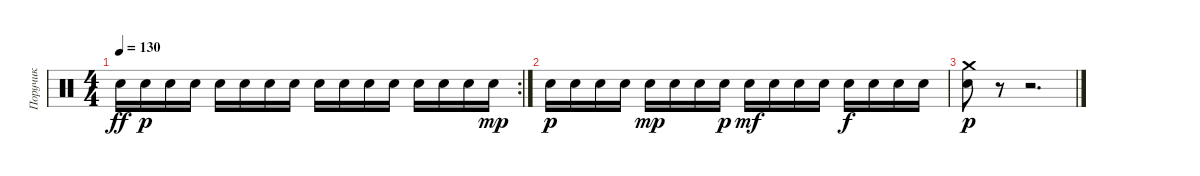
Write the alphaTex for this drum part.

\track ("Поручик" "Поручик") {instrument percussion}
\staff {score}
\articulation defaults
\rc 2
\ts (4 4)
\tempo 130
\clef neutral
\ks c "Electric Snare (hit)".16{dy ff} "Electric Snare (hit)".16{dy p} "Electric Snare (hit)".16 "Electric Snare (hit)".16 "Electric Snare (hit)".16 "Electric Snare (hit)".16 "Electric Snare (hit)".16 "Electric Snare (hit)".16 "Electric Snare (hit)".16 "Electric Snare (hit)".16 "Electric Snare (hit)".16 "Electric Snare (hit)".16 "Electric Snare (hit)".16 "Electric Snare (hit)".16 "Electric Snare (hit)".16 "Electric Snare (hit)".16{dy mp}
|
"Electric Snare (hit)".16{dy p} "Electric Snare (hit)".16 "Electric Snare (hit)".16 "Electric Snare (hit)".16 "Electric Snare (hit)".16{dy mp} "Electric Snare (hit)".16 "Electric Snare (hit)".16 "Electric Snare (hit)".16{dy p} "Electric Snare (hit)".16{dy mf} "Electric Snare (hit)".16 "Electric Snare (hit)".16 "Electric Snare (hit)".16 "Electric Snare (hit)".16{dy f} "Electric Snare (hit)".16 "Electric Snare (hit)".16 "Electric Snare (hit)".16 |
("Crash medium (hit)" "Electric Snare (hit)").8{dy p} r.8 r.2{d}
